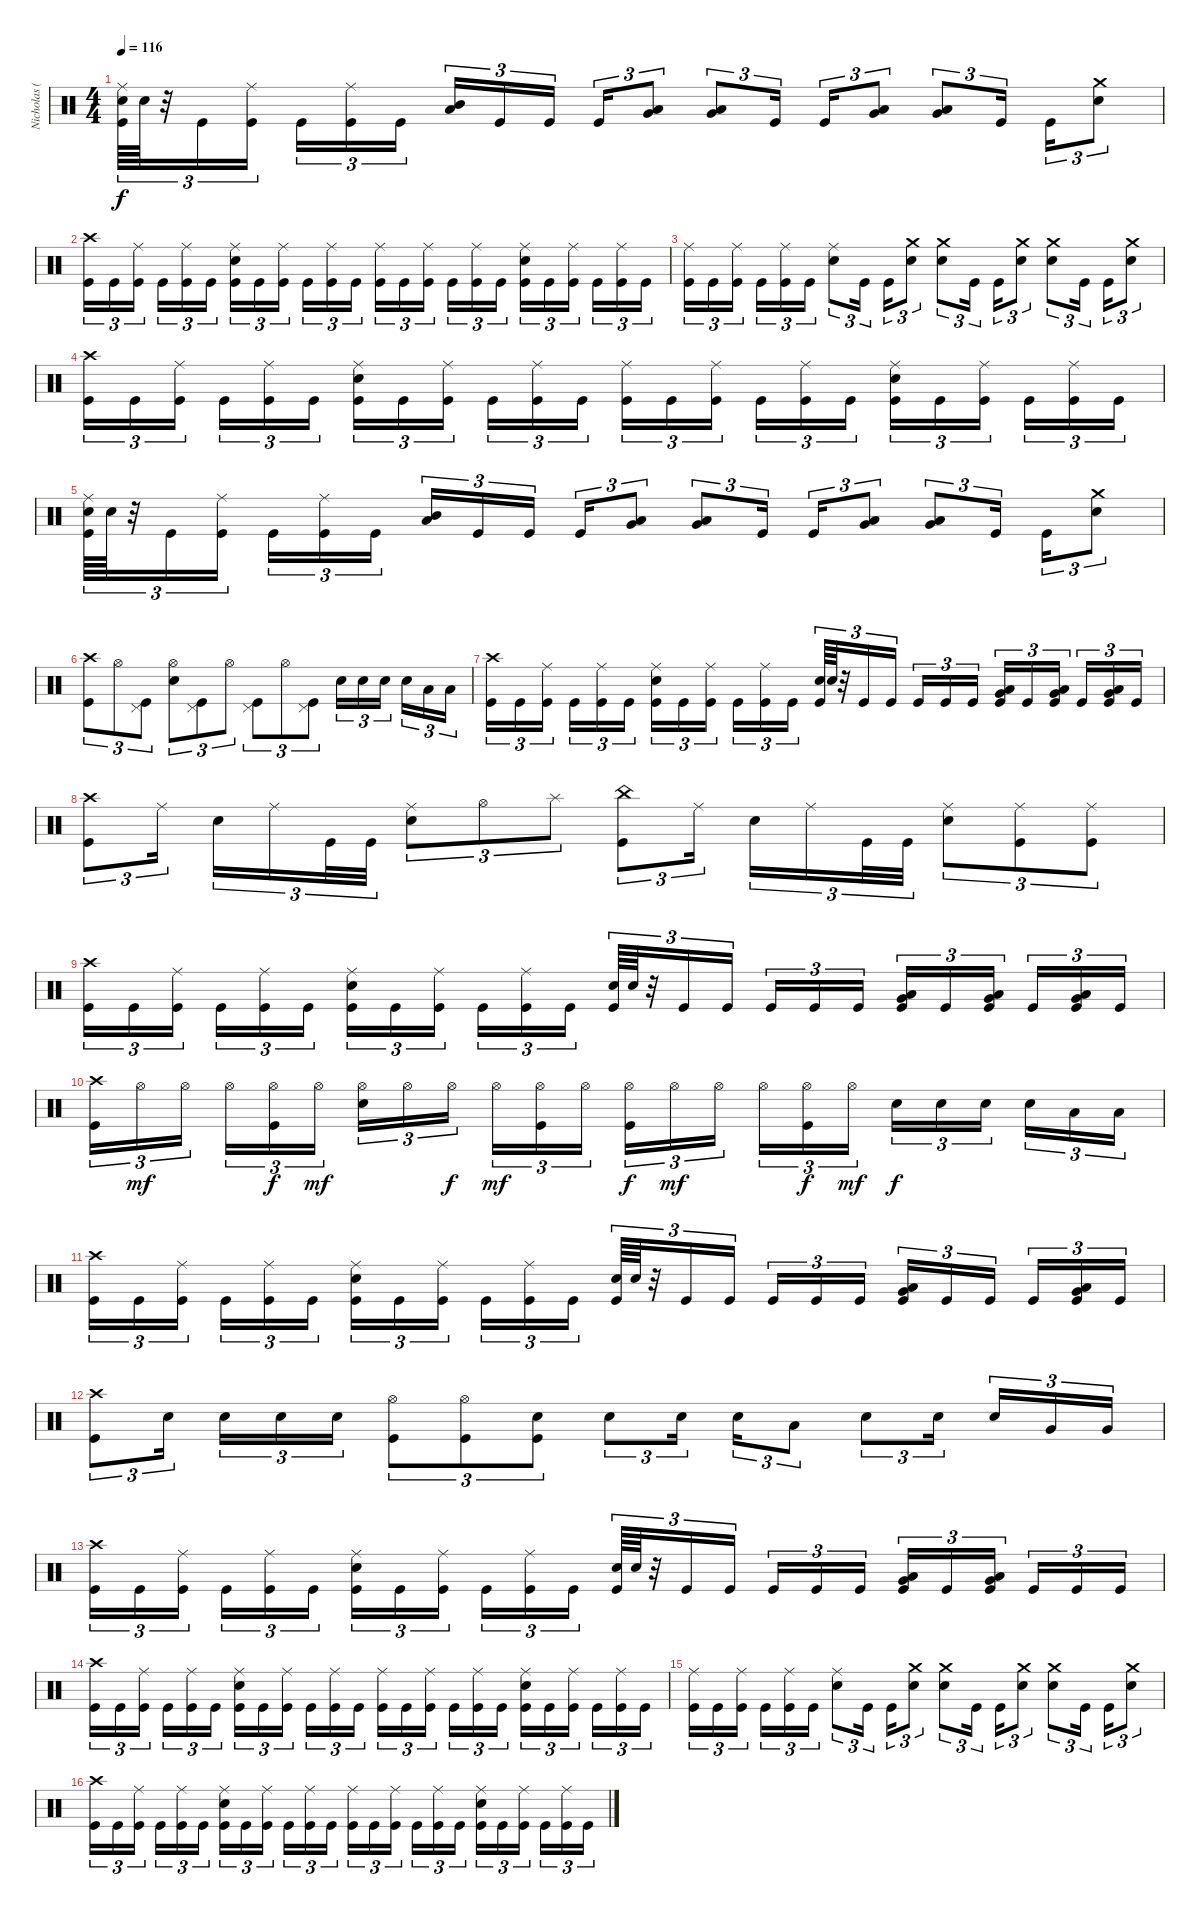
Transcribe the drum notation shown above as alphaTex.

\track ("Nicholas (Drums)" "Nicholas (") {instrument percussion}
\staff {score}
\articulation defaults
\ts (4 4)
\tempo 116
\clef neutral
\ks c
("Ride (middle)" "Electric Snare (hit)" "Kick (hit)").64{tu (3 2) dy f} "Electric Snare (hit)".64{tu (3 2)} r.32{tu (3 2)} "Kick (hit)".16{tu (3 2)} ("Ride (middle)" "Kick (hit)").16{tu (3 2)} "Kick (hit)".16{tu (3 2)} ("Ride (middle)" "Kick (hit)").16{tu (3 2)} "Kick (hit)".16{tu (3 2)} ("Mid Tom (hit)" "Low Tom (hit)").16{tu (3 2) bd 60} "Kick (hit)".16{tu (3 2)} "Kick (hit)".16{tu (3 2)} "Kick (hit)".16{tu (3 2)} ("Low Tom (hit)" "Very Low Tom (hit)").8{tu (3 2) bu 60} ("Low Tom (hit)" "Very Low Tom (hit)").8{tu (3 2) bu 60} "Kick (hit)".16{tu (3 2)} "Kick (hit)".16{tu (3 2)} ("Low Tom (hit)" "Very Low Tom (hit)").8{tu (3 2) bu 60} ("Low Tom (hit)" "Very Low Tom (hit)").8{tu (3 2) bu 60} "Kick (hit)".16{tu (3 2)} "Kick (hit)".16{tu (3 2)} ("Crash medium (hit)" "Electric Snare (hit)").8{tu (3 2)} |
("Crash high (hit)" "Kick (hit)").16{tu (3 2)} "Kick (hit)".16{tu (3 2)} ("Ride (middle)" "Kick (hit)").16{tu (3 2)} "Kick (hit)".16{tu (3 2)} ("Ride (middle)" "Kick (hit)").16{tu (3 2)} "Kick (hit)".16{tu (3 2)} ("Ride (middle)" "Electric Snare (hit)" "Kick (hit)").16{tu (3 2)} "Kick (hit)".16{tu (3 2)} ("Ride (middle)" "Kick (hit)").16{tu (3 2)} "Kick (hit)".16{tu (3 2)} ("Ride (middle)" "Kick (hit)").16{tu (3 2)} "Kick (hit)".16{tu (3 2)} ("Ride (middle)" "Kick (hit)").16{tu (3 2)} "Kick (hit)".16{tu (3 2)} ("Ride (middle)" "Kick (hit)").16{tu (3 2)} "Kick (hit)".16{tu (3 2)} ("Ride (middle)" "Kick (hit)").16{tu (3 2)} "Kick (hit)".16{tu (3 2)} ("Ride (middle)" "Electric Snare (hit)" "Kick (hit)").16{tu (3 2)} "Kick (hit)".16{tu (3 2)} ("Ride (middle)" "Kick (hit)").16{tu (3 2)} "Kick (hit)".16{tu (3 2)} ("Ride (middle)" "Kick (hit)").16{tu (3 2)} "Kick (hit)".16{tu (3 2)} |
("Ride (middle)" "Kick (hit)").16{tu (3 2)} "Kick (hit)".16{tu (3 2)} ("Ride (middle)" "Kick (hit)").16{tu (3 2)} "Kick (hit)".16{tu (3 2)} ("Ride (middle)" "Kick (hit)").16{tu (3 2)} "Kick (hit)".16{tu (3 2)} ("Ride (middle)" "Electric Snare (hit)").8{tu (3 2)} "Kick (hit)".16{tu (3 2)} "Kick (hit)".16{tu (3 2)} ("Crash medium (hit)" "Electric Snare (hit)").8{tu (3 2)} ("Crash medium (hit)" "Electric Snare (hit)").8{tu (3 2)} "Kick (hit)".16{tu (3 2)} "Kick (hit)".16{tu (3 2)} ("Crash medium (hit)" "Electric Snare (hit)").8{tu (3 2)} ("Crash medium (hit)" "Electric Snare (hit)").8{tu (3 2)} "Kick (hit)".16{tu (3 2)} "Kick (hit)".16{tu (3 2)} ("Crash medium (hit)" "Electric Snare (hit)").8{tu (3 2)} |
("Crash high (hit)" "Kick (hit)").16{tu (3 2)} "Kick (hit)".16{tu (3 2)} ("Ride (middle)" "Kick (hit)").16{tu (3 2)} "Kick (hit)".16{tu (3 2)} ("Ride (middle)" "Kick (hit)").16{tu (3 2)} "Kick (hit)".16{tu (3 2)} ("Ride (middle)" "Electric Snare (hit)" "Kick (hit)").16{tu (3 2)} "Kick (hit)".16{tu (3 2)} ("Ride (middle)" "Kick (hit)").16{tu (3 2)} "Kick (hit)".16{tu (3 2)} ("Ride (middle)" "Kick (hit)").16{tu (3 2)} "Kick (hit)".16{tu (3 2)} ("Ride (middle)" "Kick (hit)").16{tu (3 2)} "Kick (hit)".16{tu (3 2)} ("Ride (middle)" "Kick (hit)").16{tu (3 2)} "Kick (hit)".16{tu (3 2)} ("Ride (middle)" "Kick (hit)").16{tu (3 2)} "Kick (hit)".16{tu (3 2)} ("Ride (middle)" "Electric Snare (hit)" "Kick (hit)").16{tu (3 2)} "Kick (hit)".16{tu (3 2)} ("Ride (middle)" "Kick (hit)").16{tu (3 2)} "Kick (hit)".16{tu (3 2)} ("Ride (middle)" "Kick (hit)").16{tu (3 2)} "Kick (hit)".16{tu (3 2)} |
("Ride (middle)" "Electric Snare (hit)" "Kick (hit)").64{tu (3 2)} "Electric Snare (hit)".64{tu (3 2)} r.32{tu (3 2)} "Kick (hit)".16{tu (3 2)} ("Ride (middle)" "Kick (hit)").16{tu (3 2)} "Kick (hit)".16{tu (3 2)} ("Ride (middle)" "Kick (hit)").16{tu (3 2)} "Kick (hit)".16{tu (3 2)} ("Mid Tom (hit)" "Low Tom (hit)").16{tu (3 2) bd 60} "Kick (hit)".16{tu (3 2)} "Kick (hit)".16{tu (3 2)} "Kick (hit)".16{tu (3 2)} ("Low Tom (hit)" "Very Low Tom (hit)").8{tu (3 2) bu 60} ("Low Tom (hit)" "Very Low Tom (hit)").8{tu (3 2) bu 60} "Kick (hit)".16{tu (3 2)} "Kick (hit)".16{tu (3 2)} ("Low Tom (hit)" "Very Low Tom (hit)").8{tu (3 2) bu 60} ("Low Tom (hit)" "Very Low Tom (hit)").8{tu (3 2) bu 60} "Kick (hit)".16{tu (3 2)} "Kick (hit)".16{tu (3 2)} ("Crash medium (hit)" "Electric Snare (hit)").8{tu (3 2)} |
("Crash high (hit)" "Kick (hit)").8{tu (3 2)} "Hi-Hat (open)".8{tu (3 2)} ("Pedal Hi-Hat (hit)" "Kick (hit)").8{tu (3 2)} ("Hi-Hat (open)" "Electric Snare (hit)").8{tu (3 2)} ("Pedal Hi-Hat (hit)" "Kick (hit)").8{tu (3 2)} "Hi-Hat (open)".8{tu (3 2)} ("Pedal Hi-Hat (hit)" "Kick (hit)").8{tu (3 2)} "Hi-Hat (open)".8{tu (3 2)} ("Pedal Hi-Hat (hit)" "Kick (hit)").8{tu (3 2)} "Electric Snare (hit)".16{tu (3 2)} "Electric Snare (hit)".16{tu (3 2)} "Electric Snare (hit)".16{tu (3 2)} "Electric Snare (hit)".16{tu (3 2)} "Low Tom (hit)".16{tu (3 2)} "Low Tom (hit)".16{tu (3 2)} |
("Crash high (hit)" "Kick (hit)").16{tu (3 2)} "Kick (hit)".16{tu (3 2)} ("Ride (middle)" "Kick (hit)").16{tu (3 2)} "Kick (hit)".16{tu (3 2)} ("Ride (middle)" "Kick (hit)").16{tu (3 2)} "Kick (hit)".16{tu (3 2)} ("Ride (middle)" "Electric Snare (hit)" "Kick (hit)").16{tu (3 2)} "Kick (hit)".16{tu (3 2)} ("Ride (middle)" "Kick (hit)").16{tu (3 2)} "Kick (hit)".16{tu (3 2)} ("Ride (middle)" "Kick (hit)").16{tu (3 2)} "Kick (hit)".16{tu (3 2)} ("Electric Snare (hit)" "Kick (hit)").64{tu (3 2)} "Electric Snare (hit)".64{tu (3 2)} r.32{tu (3 2)} "Kick (hit)".16{tu (3 2)} "Kick (hit)".16{tu (3 2)} "Kick (hit)".16{tu (3 2)} "Kick (hit)".16{tu (3 2)} "Kick (hit)".16{tu (3 2)} ("Low Tom (hit)" "Very Low Tom (hit)" "Kick (hit)").16{tu (3 2) bd 60} "Kick (hit)".16{tu (3 2)} ("Low Tom (hit)" "Very Low Tom (hit)" "Kick (hit)").16{tu (3 2) bd 60} "Kick (hit)".16{tu (3 2)} ("Low Tom (hit)" "Very Low Tom (hit)" "Kick (hit)").16{tu (3 2) bd 60} "Kick (hit)".16{tu (3 2)} |
("Crash high (hit)" "Kick (hit)").8{tu (3 2)} "Ride (middle)".16{tu (3 2)} "Electric Snare (hit)".16{tu (3 2)} "Ride (middle)".16{tu (3 2)} "Kick (hit)".32{tu (3 2)} "Kick (hit)".32{tu (3 2)} ("Ride (middle)" "Electric Snare (hit)").8{tu (3 2)} "Hi-Hat (open)".8{tu (3 2)} "Splash (hit)".8{tu (3 2)} ("China (hit)" "Kick (hit)").8{tu (3 2)} "Ride (middle)".16{tu (3 2)} "Electric Snare (hit)".16{tu (3 2)} "Ride (middle)".16{tu (3 2)} "Kick (hit)".32{tu (3 2)} "Kick (hit)".32{tu (3 2)} ("Ride (middle)" "Electric Snare (hit)").8{tu (3 2)} ("Ride (middle)" "Kick (hit)").8{tu (3 2)} ("Ride (middle)" "Kick (hit)").8{tu (3 2)} |
("Crash high (hit)" "Kick (hit)").16{tu (3 2)} "Kick (hit)".16{tu (3 2)} ("Ride (middle)" "Kick (hit)").16{tu (3 2)} "Kick (hit)".16{tu (3 2)} ("Ride (middle)" "Kick (hit)").16{tu (3 2)} "Kick (hit)".16{tu (3 2)} ("Ride (middle)" "Electric Snare (hit)" "Kick (hit)").16{tu (3 2)} "Kick (hit)".16{tu (3 2)} ("Ride (middle)" "Kick (hit)").16{tu (3 2)} "Kick (hit)".16{tu (3 2)} ("Ride (middle)" "Kick (hit)").16{tu (3 2)} "Kick (hit)".16{tu (3 2)} ("Electric Snare (hit)" "Kick (hit)").64{tu (3 2)} "Electric Snare (hit)".64{tu (3 2)} r.32{tu (3 2)} "Kick (hit)".16{tu (3 2)} "Kick (hit)".16{tu (3 2)} "Kick (hit)".16{tu (3 2)} "Kick (hit)".16{tu (3 2)} "Kick (hit)".16{tu (3 2)} ("Low Tom (hit)" "Very Low Tom (hit)" "Kick (hit)").16{tu (3 2) bd 60} "Kick (hit)".16{tu (3 2)} ("Low Tom (hit)" "Very Low Tom (hit)" "Kick (hit)").16{tu (3 2) bd 60} "Kick (hit)".16{tu (3 2)} ("Low Tom (hit)" "Very Low Tom (hit)" "Kick (hit)").16{tu (3 2) bd 60} "Kick (hit)".16{tu (3 2)} |
("Crash high (hit)" "Kick (hit)").16{tu (3 2)} "Hi-Hat (open)".16{tu (3 2) dy mf} "Hi-Hat (open)".16{tu (3 2)} "Hi-Hat (open)".16{tu (3 2)} ("Hi-Hat (open)" "Kick (hit)").16{tu (3 2) dy f} "Hi-Hat (open)".16{tu (3 2) dy mf} ("Hi-Hat (open)" "Electric Snare (hit)").16{tu (3 2)} "Hi-Hat (open)".16{tu (3 2)} "Hi-Hat (open)".16{tu (3 2) dy f} "Hi-Hat (open)".16{tu (3 2) dy mf} ("Hi-Hat (open)" "Kick (hit)").16{tu (3 2)} "Hi-Hat (open)".16{tu (3 2)} ("Hi-Hat (open)" "Kick (hit)").16{tu (3 2) dy f} "Hi-Hat (open)".16{tu (3 2) dy mf} "Hi-Hat (open)".16{tu (3 2)} "Hi-Hat (open)".16{tu (3 2)} ("Hi-Hat (open)" "Kick (hit)").16{tu (3 2) dy f} "Hi-Hat (open)".16{tu (3 2) dy mf} "Electric Snare (hit)".16{tu (3 2) dy f} "Electric Snare (hit)".16{tu (3 2)} "Electric Snare (hit)".16{tu (3 2)} "Electric Snare (hit)".16{tu (3 2)} "Low Tom (hit)".16{tu (3 2)} "Low Tom (hit)".16{tu (3 2)} |
("Crash high (hit)" "Kick (hit)").16{tu (3 2)} "Kick (hit)".16{tu (3 2)} ("Ride (middle)" "Kick (hit)").16{tu (3 2)} "Kick (hit)".16{tu (3 2)} ("Ride (middle)" "Kick (hit)").16{tu (3 2)} "Kick (hit)".16{tu (3 2)} ("Ride (middle)" "Electric Snare (hit)" "Kick (hit)").16{tu (3 2)} "Kick (hit)".16{tu (3 2)} ("Ride (middle)" "Kick (hit)").16{tu (3 2)} "Kick (hit)".16{tu (3 2)} ("Ride (middle)" "Kick (hit)").16{tu (3 2)} "Kick (hit)".16{tu (3 2)} ("Electric Snare (hit)" "Kick (hit)").64{tu (3 2)} "Electric Snare (hit)".64{tu (3 2)} r.32{tu (3 2)} "Kick (hit)".16{tu (3 2)} "Kick (hit)".16{tu (3 2)} "Kick (hit)".16{tu (3 2)} "Kick (hit)".16{tu (3 2)} "Kick (hit)".16{tu (3 2)} ("Low Tom (hit)" "Very Low Tom (hit)" "Kick (hit)").16{tu (3 2) bd 60} "Kick (hit)".16{tu (3 2)} "Kick (hit)".16{tu (3 2)} "Kick (hit)".16{tu (3 2)} ("Low Tom (hit)" "Very Low Tom (hit)" "Kick (hit)").16{tu (3 2) bd 60} "Kick (hit)".16{tu (3 2)} |
("Crash high (hit)" "Kick (hit)").8{tu (3 2)} "Electric Snare (hit)".16{tu (3 2)} "Electric Snare (hit)".16{tu (3 2)} "Electric Snare (hit)".16{tu (3 2)} "Electric Snare (hit)".16{tu (3 2)} ("Hi-Hat (open)" "Kick (hit)").8{tu (3 2)} ("Hi-Hat (open)" "Kick (hit)").8{tu (3 2)} ("Electric Snare (hit)" "Kick (hit)").8{tu (3 2)} "Electric Snare (hit)".8{tu (3 2)} "Electric Snare (hit)".16{tu (3 2)} "Electric Snare (hit)".16{tu (3 2)} "Low Tom (hit)".8{tu (3 2)} "Electric Snare (hit)".8{tu (3 2)} "Electric Snare (hit)".16{tu (3 2)} "Electric Snare (hit)".16{tu (3 2)} "Very Low Tom (hit)".16{tu (3 2)} "Very Low Tom (hit)".16{tu (3 2)} |
("Crash high (hit)" "Kick (hit)").16{tu (3 2)} "Kick (hit)".16{tu (3 2)} ("Ride (middle)" "Kick (hit)").16{tu (3 2)} "Kick (hit)".16{tu (3 2)} ("Ride (middle)" "Kick (hit)").16{tu (3 2)} "Kick (hit)".16{tu (3 2)} ("Ride (middle)" "Electric Snare (hit)" "Kick (hit)").16{tu (3 2)} "Kick (hit)".16{tu (3 2)} ("Ride (middle)" "Kick (hit)").16{tu (3 2)} "Kick (hit)".16{tu (3 2)} ("Ride (middle)" "Kick (hit)").16{tu (3 2)} "Kick (hit)".16{tu (3 2)} ("Electric Snare (hit)" "Kick (hit)").64{tu (3 2)} "Electric Snare (hit)".64{tu (3 2)} r.32{tu (3 2)} "Kick (hit)".16{tu (3 2)} "Kick (hit)".16{tu (3 2)} "Kick (hit)".16{tu (3 2)} "Kick (hit)".16{tu (3 2)} "Kick (hit)".16{tu (3 2)} ("Low Tom (hit)" "Very Low Tom (hit)" "Kick (hit)").16{tu (3 2) bd 60} "Kick (hit)".16{tu (3 2)} ("Low Tom (hit)" "Very Low Tom (hit)" "Kick (hit)").16{tu (3 2) bd 60} "Kick (hit)".16{tu (3 2)} "Kick (hit)".16{tu (3 2)} "Kick (hit)".16{tu (3 2)} |
("Crash high (hit)" "Kick (hit)").16{tu (3 2)} "Kick (hit)".16{tu (3 2)} ("Ride (middle)" "Kick (hit)").16{tu (3 2)} "Kick (hit)".16{tu (3 2)} ("Ride (middle)" "Kick (hit)").16{tu (3 2)} "Kick (hit)".16{tu (3 2)} ("Ride (middle)" "Electric Snare (hit)" "Kick (hit)").16{tu (3 2)} "Kick (hit)".16{tu (3 2)} ("Ride (middle)" "Kick (hit)").16{tu (3 2)} "Kick (hit)".16{tu (3 2)} ("Ride (middle)" "Kick (hit)").16{tu (3 2)} "Kick (hit)".16{tu (3 2)} ("Ride (middle)" "Kick (hit)").16{tu (3 2)} "Kick (hit)".16{tu (3 2)} ("Ride (middle)" "Kick (hit)").16{tu (3 2)} "Kick (hit)".16{tu (3 2)} ("Ride (middle)" "Kick (hit)").16{tu (3 2)} "Kick (hit)".16{tu (3 2)} ("Ride (middle)" "Electric Snare (hit)" "Kick (hit)").16{tu (3 2)} "Kick (hit)".16{tu (3 2)} ("Ride (middle)" "Kick (hit)").16{tu (3 2)} "Kick (hit)".16{tu (3 2)} ("Ride (middle)" "Kick (hit)").16{tu (3 2)} "Kick (hit)".16{tu (3 2)} |
("Ride (middle)" "Kick (hit)").16{tu (3 2)} "Kick (hit)".16{tu (3 2)} ("Ride (middle)" "Kick (hit)").16{tu (3 2)} "Kick (hit)".16{tu (3 2)} ("Ride (middle)" "Kick (hit)").16{tu (3 2)} "Kick (hit)".16{tu (3 2)} ("Ride (middle)" "Electric Snare (hit)").8{tu (3 2)} "Kick (hit)".16{tu (3 2)} "Kick (hit)".16{tu (3 2)} ("Crash medium (hit)" "Electric Snare (hit)").8{tu (3 2)} ("Crash medium (hit)" "Electric Snare (hit)").8{tu (3 2)} "Kick (hit)".16{tu (3 2)} "Kick (hit)".16{tu (3 2)} ("Crash medium (hit)" "Electric Snare (hit)").8{tu (3 2)} ("Crash medium (hit)" "Electric Snare (hit)").8{tu (3 2)} "Kick (hit)".16{tu (3 2)} "Kick (hit)".16{tu (3 2)} ("Crash medium (hit)" "Electric Snare (hit)").8{tu (3 2)} |
("Crash high (hit)" "Kick (hit)").16{tu (3 2)} "Kick (hit)".16{tu (3 2)} ("Ride (middle)" "Kick (hit)").16{tu (3 2)} "Kick (hit)".16{tu (3 2)} ("Ride (middle)" "Kick (hit)").16{tu (3 2)} "Kick (hit)".16{tu (3 2)} ("Ride (middle)" "Electric Snare (hit)" "Kick (hit)").16{tu (3 2)} "Kick (hit)".16{tu (3 2)} ("Ride (middle)" "Kick (hit)").16{tu (3 2)} "Kick (hit)".16{tu (3 2)} ("Ride (middle)" "Kick (hit)").16{tu (3 2)} "Kick (hit)".16{tu (3 2)} ("Ride (middle)" "Kick (hit)").16{tu (3 2)} "Kick (hit)".16{tu (3 2)} ("Ride (middle)" "Kick (hit)").16{tu (3 2)} "Kick (hit)".16{tu (3 2)} ("Ride (middle)" "Kick (hit)").16{tu (3 2)} "Kick (hit)".16{tu (3 2)} ("Ride (middle)" "Electric Snare (hit)" "Kick (hit)").16{tu (3 2)} "Kick (hit)".16{tu (3 2)} ("Ride (middle)" "Kick (hit)").16{tu (3 2)} "Kick (hit)".16{tu (3 2)} ("Ride (middle)" "Kick (hit)").16{tu (3 2)} "Kick (hit)".16{tu (3 2)}
